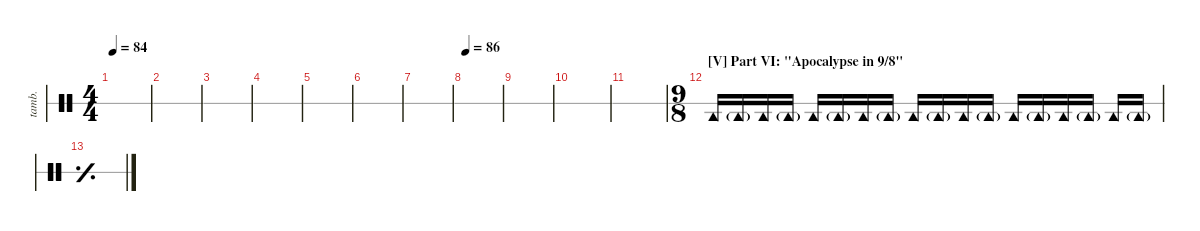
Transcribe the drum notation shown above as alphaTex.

\defaultSystemsLayout 4
\hideDynamics
\bracketExtendMode nobrackets
\track ("Tambourine" "tamb.") {instrument percussion}
\staff {score 1}
\articulation defaults
\ts (4 4)
\tempo 84
\clef neutral
\ks c
|
|
|
|
|
|
|
\tempo 86
|
|
|
|
\ts (9 8)
\beaming (8 3 3 3)
\section ("V" "Part VI: \"Apocalypse in 9/8\"")
"Tambourine (hit)".16 "Tambourine (hit)"{g}.16 "Tambourine (hit)".16 "Tambourine (hit)"{g}.16{beam split} "Tambourine (hit)".16 "Tambourine (hit)"{g}.16{beam merge} "Tambourine (hit)".16 "Tambourine (hit)"{g}.16{beam split} "Tambourine (hit)".16 "Tambourine (hit)"{g}.16 "Tambourine (hit)".16 "Tambourine (hit)"{g}.16 "Tambourine (hit)".16 "Tambourine (hit)"{g}.16 "Tambourine (hit)".16 "Tambourine (hit)"{g}.16{beam split} "Tambourine (hit)".16 "Tambourine (hit)"{g}.16 |
\simile simple
